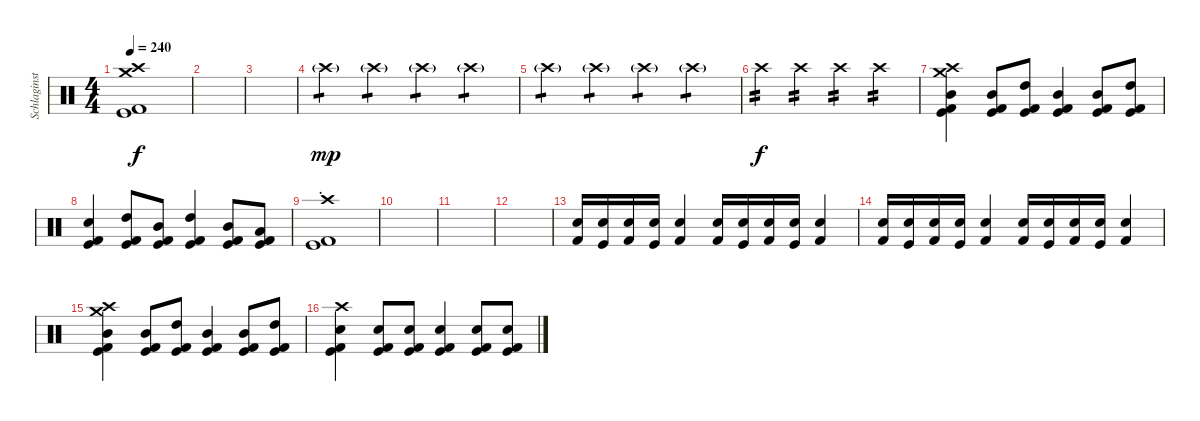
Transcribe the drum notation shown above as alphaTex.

\track ("Schlaginstrumente - Auswahl" "Schlaginst") {instrument percussion}
\staff {score}
\articulation defaults
\ts (4 4)
\tempo 240
\clef neutral
\ks c
("Crash medium (hit)" "Crash high (hit)" "Kick (hit)" "Kick (hit) 2").1{dy f} |
|
|
"Crash high (hit)"{g}.4{tp 1 dy mp} "Crash high (hit)"{g}.4{tp 1} "Crash high (hit)"{g}.4{tp 1} "Crash high (hit)"{g}.4{tp 1} |
"Crash high (hit)"{g}.4{tp 1} "Crash high (hit)"{g}.4{tp 1} "Crash high (hit)"{g}.4{tp 1} "Crash high (hit)"{g}.4{tp 1} |
"Crash high (hit)".4{tp 2 dy f} "Crash high (hit)".4{tp 2} "Crash high (hit)".4{tp 2} "Crash high (hit)".4{tp 2} |
("Crash medium (hit)" "Crash high (hit)" "Mid Tom (hit)" "Kick (hit)" "Kick (hit) 2").4 ("Mid Tom (hit)" "Kick (hit)" "Kick (hit) 2").8 ("High Tom (hit)" "Kick (hit)" "Kick (hit) 2").8 ("Mid Tom (hit)" "Kick (hit)" "Kick (hit) 2").4 ("Mid Tom (hit)" "Kick (hit)" "Kick (hit) 2").8 ("High Tom (hit)" "Kick (hit)" "Kick (hit) 2").8 |
("Electric Snare (hit)" "Kick (hit)" "Kick (hit) 2").4 ("High Tom (hit)" "Kick (hit)" "Kick (hit) 2").8 ("Mid Tom (hit)" "Kick (hit)" "Kick (hit) 2").8 ("High Tom (hit)" "Kick (hit)" "Kick (hit) 2").4 ("Mid Tom (hit)" "Kick (hit)" "Kick (hit) 2").8 ("Low Tom (hit)" "Kick (hit)" "Kick (hit) 2").8 |
("Crash high (hit)"{st} "Kick (hit)" "Kick (hit) 2").1 |
|
|
|
("Electric Snare (hit)" "Kick (hit) 2").16 ("Electric Snare (hit)" "Kick (hit)").16 ("Electric Snare (hit)" "Kick (hit) 2").16 ("Electric Snare (hit)" "Kick (hit)").16 ("Electric Snare (hit)" "Kick (hit) 2").4 ("Electric Snare (hit)" "Kick (hit) 2").16 ("Electric Snare (hit)" "Kick (hit)").16 ("Electric Snare (hit)" "Kick (hit) 2").16 ("Electric Snare (hit)" "Kick (hit)").16 ("Electric Snare (hit)" "Kick (hit) 2").4 |
("Electric Snare (hit)" "Kick (hit) 2").16 ("Electric Snare (hit)" "Kick (hit)").16 ("Electric Snare (hit)" "Kick (hit) 2").16 ("Electric Snare (hit)" "Kick (hit)").16 ("Electric Snare (hit)" "Kick (hit) 2").4 ("Electric Snare (hit)" "Kick (hit) 2").16 ("Electric Snare (hit)" "Kick (hit)").16 ("Electric Snare (hit)" "Kick (hit) 2").16 ("Electric Snare (hit)" "Kick (hit)").16 ("Electric Snare (hit)" "Kick (hit) 2").4 |
("Crash medium (hit)" "Crash high (hit)" "Mid Tom (hit)" "Kick (hit)" "Kick (hit) 2").4 ("Mid Tom (hit)" "Kick (hit)" "Kick (hit) 2").8 ("High Tom (hit)" "Kick (hit)" "Kick (hit) 2").8 ("Mid Tom (hit)" "Kick (hit)" "Kick (hit) 2").4 ("Mid Tom (hit)" "Kick (hit)" "Kick (hit) 2").8 ("High Tom (hit)" "Kick (hit)" "Kick (hit) 2").8 |
("Crash high (hit)" "Electric Snare (hit)" "Kick (hit)" "Kick (hit) 2").4 ("Electric Snare (hit)" "Kick (hit)" "Kick (hit) 2").8 ("Electric Snare (hit)" "Kick (hit)" "Kick (hit) 2").8 ("Electric Snare (hit)" "Kick (hit)" "Kick (hit) 2").4 ("Electric Snare (hit)" "Kick (hit)" "Kick (hit) 2").8 ("Electric Snare (hit)" "Kick (hit)" "Kick (hit) 2").8
